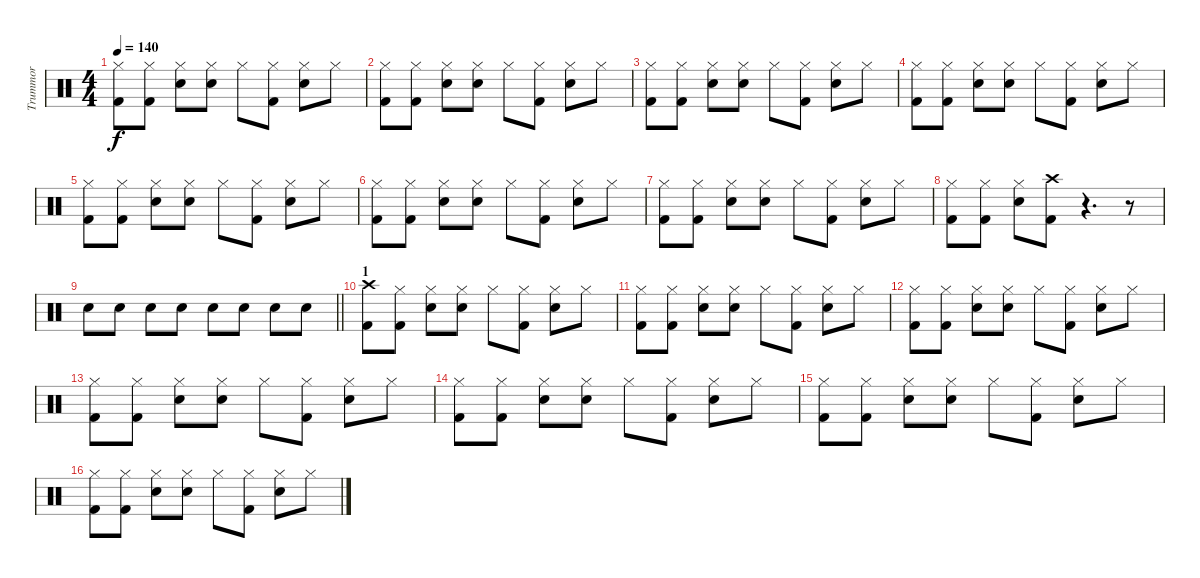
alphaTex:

\track ("Trummor" "Trummor") {instrument percussion}
\staff {score}
\articulation defaults
\ts (4 4)
\tempo 140
\clef neutral
\ks c
("Hi-Hat (closed)" "Kick (hit) 2").8{dy f} ("Hi-Hat (closed)" "Kick (hit) 2").8 ("Hi-Hat (closed)" "Electric Snare (hit)").8 ("Hi-Hat (closed)" "Electric Snare (hit)").8 "Hi-Hat (closed)".8 ("Hi-Hat (closed)" "Kick (hit) 2").8 ("Hi-Hat (closed)" "Electric Snare (hit)").8 "Hi-Hat (closed)".8 |
("Hi-Hat (closed)" "Kick (hit) 2").8 ("Hi-Hat (closed)" "Kick (hit) 2").8 ("Hi-Hat (closed)" "Electric Snare (hit)").8 ("Hi-Hat (closed)" "Electric Snare (hit)").8 "Hi-Hat (closed)".8 ("Hi-Hat (closed)" "Kick (hit) 2").8 ("Hi-Hat (closed)" "Electric Snare (hit)").8 "Hi-Hat (closed)".8 |
("Hi-Hat (closed)" "Kick (hit) 2").8 ("Hi-Hat (closed)" "Kick (hit) 2").8 ("Hi-Hat (closed)" "Electric Snare (hit)").8 ("Hi-Hat (closed)" "Electric Snare (hit)").8 "Hi-Hat (closed)".8 ("Hi-Hat (closed)" "Kick (hit) 2").8 ("Hi-Hat (closed)" "Electric Snare (hit)").8 "Hi-Hat (closed)".8 |
("Hi-Hat (closed)" "Kick (hit) 2").8 ("Hi-Hat (closed)" "Kick (hit) 2").8 ("Hi-Hat (closed)" "Electric Snare (hit)").8 ("Hi-Hat (closed)" "Electric Snare (hit)").8 "Hi-Hat (closed)".8 ("Hi-Hat (closed)" "Kick (hit) 2").8 ("Hi-Hat (closed)" "Electric Snare (hit)").8 "Hi-Hat (closed)".8 |
("Hi-Hat (closed)" "Kick (hit) 2").8 ("Hi-Hat (closed)" "Kick (hit) 2").8 ("Hi-Hat (closed)" "Electric Snare (hit)").8 ("Hi-Hat (closed)" "Electric Snare (hit)").8 "Hi-Hat (closed)".8 ("Hi-Hat (closed)" "Kick (hit) 2").8 ("Hi-Hat (closed)" "Electric Snare (hit)").8 "Hi-Hat (closed)".8 |
("Hi-Hat (closed)" "Kick (hit) 2").8 ("Hi-Hat (closed)" "Kick (hit) 2").8 ("Hi-Hat (closed)" "Electric Snare (hit)").8 ("Hi-Hat (closed)" "Electric Snare (hit)").8 "Hi-Hat (closed)".8 ("Hi-Hat (closed)" "Kick (hit) 2").8 ("Hi-Hat (closed)" "Electric Snare (hit)").8 "Hi-Hat (closed)".8 |
("Hi-Hat (closed)" "Kick (hit) 2").8 ("Hi-Hat (closed)" "Kick (hit) 2").8 ("Hi-Hat (closed)" "Electric Snare (hit)").8 ("Hi-Hat (closed)" "Electric Snare (hit)").8 "Hi-Hat (closed)".8 ("Hi-Hat (closed)" "Kick (hit) 2").8 ("Hi-Hat (closed)" "Electric Snare (hit)").8 "Hi-Hat (closed)".8 |
("Hi-Hat (closed)" "Kick (hit) 2").8 ("Hi-Hat (closed)" "Kick (hit) 2").8 ("Hi-Hat (closed)" "Electric Snare (hit)").8 ("Crash high (hit)" "Kick (hit) 2").8 r.4{d} r.8{volume 0} |
\barLineRight lightlight "Electric Snare (hit)".8{volume 14} "Electric Snare (hit)".8 "Electric Snare (hit)".8 "Electric Snare (hit)".8 "Electric Snare (hit)".8 "Electric Snare (hit)".8 "Electric Snare (hit)".8 "Electric Snare (hit)".8
|
\section ("" "1")
("Crash high (hit)" "Kick (hit) 2").8 ("Hi-Hat (closed)" "Kick (hit) 2").8 ("Hi-Hat (closed)" "Electric Snare (hit)").8 ("Hi-Hat (closed)" "Electric Snare (hit)").8 "Hi-Hat (closed)".8 ("Hi-Hat (closed)" "Kick (hit) 2").8 ("Hi-Hat (closed)" "Electric Snare (hit)").8 "Hi-Hat (closed)".8 |
("Hi-Hat (closed)" "Kick (hit) 2").8 ("Hi-Hat (closed)" "Kick (hit) 2").8 ("Hi-Hat (closed)" "Electric Snare (hit)").8 ("Hi-Hat (closed)" "Electric Snare (hit)").8 "Hi-Hat (closed)".8 ("Hi-Hat (closed)" "Kick (hit) 2").8 ("Hi-Hat (closed)" "Electric Snare (hit)").8 "Hi-Hat (closed)".8 |
("Hi-Hat (closed)" "Kick (hit) 2").8 ("Hi-Hat (closed)" "Kick (hit) 2").8 ("Hi-Hat (closed)" "Electric Snare (hit)").8 ("Hi-Hat (closed)" "Electric Snare (hit)").8 "Hi-Hat (closed)".8 ("Hi-Hat (closed)" "Kick (hit) 2").8 ("Hi-Hat (closed)" "Electric Snare (hit)").8 "Hi-Hat (closed)".8 |
("Hi-Hat (closed)" "Kick (hit) 2").8 ("Hi-Hat (closed)" "Kick (hit) 2").8 ("Hi-Hat (closed)" "Electric Snare (hit)").8 ("Hi-Hat (closed)" "Electric Snare (hit)").8 "Hi-Hat (closed)".8 ("Hi-Hat (closed)" "Kick (hit) 2").8 ("Hi-Hat (closed)" "Electric Snare (hit)").8 "Hi-Hat (closed)".8 |
("Hi-Hat (closed)" "Kick (hit) 2").8 ("Hi-Hat (closed)" "Kick (hit) 2").8 ("Hi-Hat (closed)" "Electric Snare (hit)").8 ("Hi-Hat (closed)" "Electric Snare (hit)").8 "Hi-Hat (closed)".8 ("Hi-Hat (closed)" "Kick (hit) 2").8 ("Hi-Hat (closed)" "Electric Snare (hit)").8 "Hi-Hat (closed)".8 |
("Hi-Hat (closed)" "Kick (hit) 2").8 ("Hi-Hat (closed)" "Kick (hit) 2").8 ("Hi-Hat (closed)" "Electric Snare (hit)").8 ("Hi-Hat (closed)" "Electric Snare (hit)").8 "Hi-Hat (closed)".8 ("Hi-Hat (closed)" "Kick (hit) 2").8 ("Hi-Hat (closed)" "Electric Snare (hit)").8 "Hi-Hat (closed)".8 |
("Hi-Hat (closed)" "Kick (hit) 2").8 ("Hi-Hat (closed)" "Kick (hit) 2").8 ("Hi-Hat (closed)" "Electric Snare (hit)").8 ("Hi-Hat (closed)" "Electric Snare (hit)").8 "Hi-Hat (closed)".8 ("Hi-Hat (closed)" "Kick (hit) 2").8 ("Hi-Hat (closed)" "Electric Snare (hit)").8 "Hi-Hat (closed)".8
